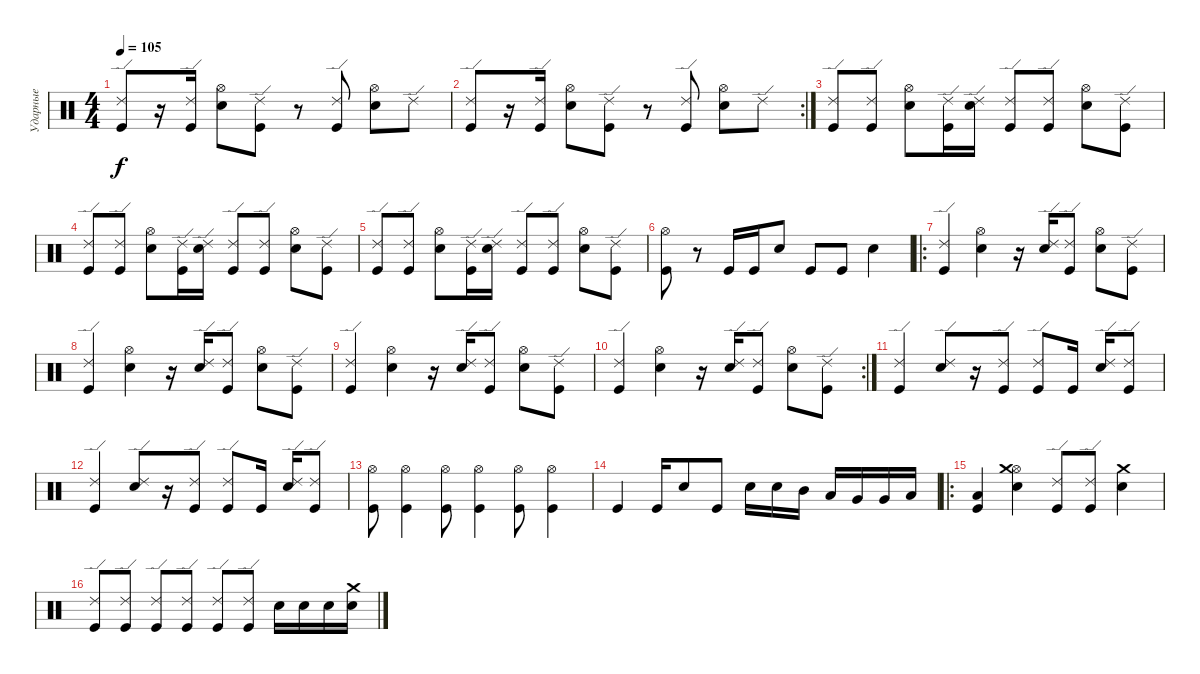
\track ("Ударные" "Ударные") {instrument percussion}
\staff {score}
\articulation defaults
\ts (4 4)
\tempo 105
\clef neutral
\ks c
("Ride (edge) 2" "Kick (hit)").8{dy f} r.16 ("Ride (edge) 2" "Kick (hit)").16 ("Hi-Hat (open)" "Electric Snare (hit)").8 ("Ride (edge) 2" "Kick (hit)").8 r.8 ("Ride (edge) 2" "Kick (hit)").8 ("Hi-Hat (open)" "Electric Snare (hit)").8 "Ride (edge) 2".8 |
\rc 2
("Ride (edge) 2" "Kick (hit)").8 r.16 ("Ride (edge) 2" "Kick (hit)").16 ("Hi-Hat (open)" "Electric Snare (hit)").8 ("Ride (edge) 2" "Kick (hit)").8 r.8 ("Ride (edge) 2" "Kick (hit)").8 ("Hi-Hat (open)" "Electric Snare (hit)").8 "Ride (edge) 2".8 |
("Ride (edge) 2" "Kick (hit)").8 ("Ride (edge) 2" "Kick (hit)").8 ("Hi-Hat (open)" "Electric Snare (hit)").8 ("Ride (edge) 2" "Kick (hit)").16 ("Ride (edge) 2" "Electric Snare (hit)").16 ("Ride (edge) 2" "Kick (hit)").8 ("Ride (edge) 2" "Kick (hit)").8 ("Hi-Hat (open)" "Electric Snare (hit)").8 ("Ride (edge) 2" "Kick (hit)").8 |
("Ride (edge) 2" "Kick (hit)").8 ("Ride (edge) 2" "Kick (hit)").8 ("Hi-Hat (open)" "Electric Snare (hit)").8 ("Ride (edge) 2" "Kick (hit)").16 ("Ride (edge) 2" "Electric Snare (hit)").16 ("Ride (edge) 2" "Kick (hit)").8 ("Ride (edge) 2" "Kick (hit)").8 ("Hi-Hat (open)" "Electric Snare (hit)").8 ("Ride (edge) 2" "Kick (hit)").8 |
("Ride (edge) 2" "Kick (hit)").8 ("Ride (edge) 2" "Kick (hit)").8 ("Hi-Hat (open)" "Electric Snare (hit)").8 ("Ride (edge) 2" "Kick (hit)").16 ("Ride (edge) 2" "Electric Snare (hit)").16 ("Ride (edge) 2" "Kick (hit)").8 ("Ride (edge) 2" "Kick (hit)").8 ("Hi-Hat (open)" "Electric Snare (hit)").8 ("Ride (edge) 2" "Kick (hit)").8 |
("Hi-Hat (open)" "Kick (hit)").8 r.8 "Kick (hit)".16 "Kick (hit)".16 "Electric Snare (hit)".8 "Kick (hit)".8 "Kick (hit)".8 "Electric Snare (hit)".4 |
\ro
("Ride (edge) 2" "Kick (hit)").4 ("Hi-Hat (open)" "Electric Snare (hit)").4 r.16 ("Ride (edge) 2" "Electric Snare (hit)").16 ("Ride (edge) 2" "Kick (hit)").8 ("Hi-Hat (open)" "Electric Snare (hit)").8 ("Ride (edge) 2" "Kick (hit)").8 |
("Ride (edge) 2" "Kick (hit)").4 ("Hi-Hat (open)" "Electric Snare (hit)").4 r.16 ("Ride (edge) 2" "Electric Snare (hit)").16 ("Ride (edge) 2" "Kick (hit)").8 ("Hi-Hat (open)" "Electric Snare (hit)").8 ("Ride (edge) 2" "Kick (hit)").8 |
("Ride (edge) 2" "Kick (hit)").4 ("Hi-Hat (open)" "Electric Snare (hit)").4 r.16 ("Ride (edge) 2" "Electric Snare (hit)").16 ("Ride (edge) 2" "Kick (hit)").8 ("Hi-Hat (open)" "Electric Snare (hit)").8 ("Ride (edge) 2" "Kick (hit)").8 |
\rc 2
("Ride (edge) 2" "Kick (hit)").4 ("Hi-Hat (open)" "Electric Snare (hit)").4 r.16 ("Ride (edge) 2" "Electric Snare (hit)").16 ("Ride (edge) 2" "Kick (hit)").8 ("Hi-Hat (open)" "Electric Snare (hit)").8 ("Ride (edge) 2" "Kick (hit)").8 |
("Ride (edge) 2" "Kick (hit)").4 ("Ride (edge) 2" "Electric Snare (hit)").8 r.16 ("Ride (edge) 2" "Kick (hit)").8 ("Ride (edge) 2" "Kick (hit)").8 "Kick (hit)".16 ("Ride (edge) 2" "Electric Snare (hit)").16 ("Ride (edge) 2" "Kick (hit)").8 |
("Ride (edge) 2" "Kick (hit)").4 ("Ride (edge) 2" "Electric Snare (hit)").8 r.16 ("Ride (edge) 2" "Kick (hit)").8 ("Ride (edge) 2" "Kick (hit)").8 "Kick (hit)".16 ("Ride (edge) 2" "Electric Snare (hit)").16 ("Ride (edge) 2" "Kick (hit)").8 |
("Hi-Hat (open)" "Kick (hit)").8 ("Hi-Hat (open)" "Kick (hit)").4 ("Hi-Hat (open)" "Kick (hit)").8 ("Hi-Hat (open)" "Kick (hit)").4 ("Hi-Hat (open)" "Kick (hit)").8 ("Hi-Hat (open)" "Kick (hit)").4 |
"Kick (hit)".4 "Kick (hit)".16 "Electric Snare (hit)".8 "Kick (hit)".8 "Electric Snare (hit)".16 "Electric Snare (hit)".16 "Mid Tom (hit)".16 "Low Tom (hit)".16 "Very Low Tom (hit)".16 "Very Low Tom (hit)".16 "Low Floor Tom (hit)".16 |
\ro
("Low Floor Tom (hit)" "Kick (hit)").4 ("Hi-Hat (open)" "Crash medium (hit)" "Electric Snare (hit)").4 ("Ride (edge) 2" "Kick (hit)").8 ("Ride (edge) 2" "Kick (hit)").8 ("Crash medium (hit)" "Electric Snare (hit)").4 |
("Ride (edge) 2" "Kick (hit)").8 ("Ride (edge) 2" "Kick (hit)").8 ("Ride (edge) 2" "Kick (hit)").8 ("Ride (edge) 2" "Kick (hit)").8 ("Ride (edge) 2" "Kick (hit)").8 ("Ride (edge) 2" "Kick (hit)").8 "Electric Snare (hit)".16 "Electric Snare (hit)".16 "Electric Snare (hit)".16 ("Crash medium (hit)" "Electric Snare (hit)").16
